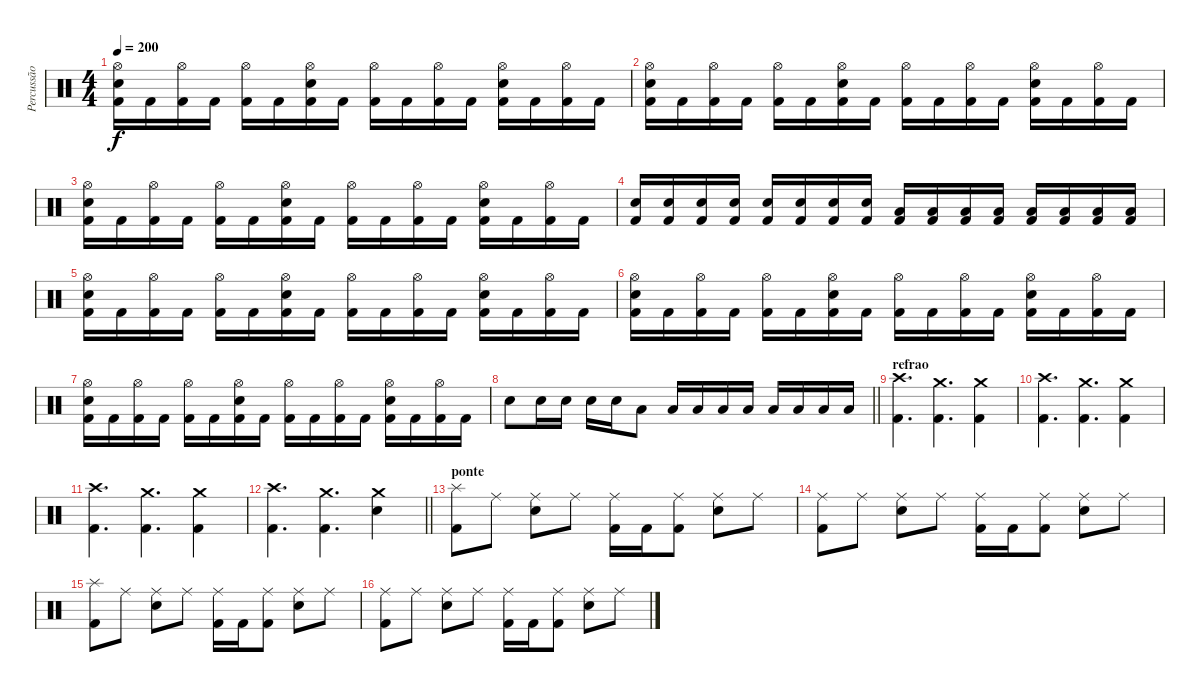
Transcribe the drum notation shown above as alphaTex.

\track ("Percussão" "Percussão") {instrument percussion}
\staff {score}
\articulation defaults
\ts (4 4)
\tempo 200
\clef neutral
\ks c
("Kick (hit) 2" "Hi-Hat (open)" "Snare (hit) 2").16{dy f} "Kick (hit) 2".16 ("Kick (hit) 2" "Hi-Hat (open)").16 "Kick (hit) 2".16 ("Kick (hit) 2" "Hi-Hat (open)").16 "Kick (hit) 2".16 ("Kick (hit) 2" "Hi-Hat (open)" "Snare (hit) 2").16 "Kick (hit) 2".16 ("Kick (hit) 2" "Hi-Hat (open)").16 "Kick (hit) 2".16 ("Kick (hit) 2" "Hi-Hat (open)").16 "Kick (hit) 2".16 ("Kick (hit) 2" "Hi-Hat (open)" "Snare (hit) 2").16 "Kick (hit) 2".16 ("Kick (hit) 2" "Hi-Hat (open)").16 "Kick (hit) 2".16 |
("Kick (hit) 2" "Hi-Hat (open)" "Snare (hit) 2").16 "Kick (hit) 2".16 ("Kick (hit) 2" "Hi-Hat (open)").16 "Kick (hit) 2".16 ("Kick (hit) 2" "Hi-Hat (open)").16 "Kick (hit) 2".16 ("Kick (hit) 2" "Hi-Hat (open)" "Snare (hit) 2").16 "Kick (hit) 2".16 ("Kick (hit) 2" "Hi-Hat (open)").16 "Kick (hit) 2".16 ("Kick (hit) 2" "Hi-Hat (open)").16 "Kick (hit) 2".16 ("Kick (hit) 2" "Hi-Hat (open)" "Snare (hit) 2").16 "Kick (hit) 2".16 ("Kick (hit) 2" "Hi-Hat (open)").16 "Kick (hit) 2".16 |
("Kick (hit) 2" "Hi-Hat (open)" "Snare (hit) 2").16 "Kick (hit) 2".16 ("Kick (hit) 2" "Hi-Hat (open)").16 "Kick (hit) 2".16 ("Kick (hit) 2" "Hi-Hat (open)").16 "Kick (hit) 2".16 ("Kick (hit) 2" "Hi-Hat (open)" "Snare (hit) 2").16 "Kick (hit) 2".16 ("Kick (hit) 2" "Hi-Hat (open)").16 "Kick (hit) 2".16 ("Kick (hit) 2" "Hi-Hat (open)").16 "Kick (hit) 2".16 ("Kick (hit) 2" "Hi-Hat (open)" "Snare (hit) 2").16 "Kick (hit) 2".16 ("Kick (hit) 2" "Hi-Hat (open)").16 "Kick (hit) 2".16 |
("Kick (hit) 2" "Snare (hit) 2").16 ("Kick (hit) 2" "Snare (hit) 2").16 ("Kick (hit) 2" "Snare (hit) 2").16 ("Kick (hit) 2" "Snare (hit) 2").16 ("Kick (hit) 2" "Snare (hit) 2").16 ("Kick (hit) 2" "Snare (hit) 2").16 ("Kick (hit) 2" "Snare (hit) 2").16 ("Kick (hit) 2" "Snare (hit) 2").16 ("Kick (hit) 2" "Low Tom (hit)").16 ("Kick (hit) 2" "Low Tom (hit)").16 ("Kick (hit) 2" "Low Tom (hit)").16 ("Kick (hit) 2" "Low Tom (hit)").16 ("Kick (hit) 2" "Low Tom (hit)").16 ("Kick (hit) 2" "Low Tom (hit)").16 ("Kick (hit) 2" "Low Tom (hit)").16 ("Kick (hit) 2" "Low Tom (hit)").16 |
("Kick (hit) 2" "Hi-Hat (open)" "Snare (hit) 2").16 "Kick (hit) 2".16 ("Kick (hit) 2" "Hi-Hat (open)").16 "Kick (hit) 2".16 ("Kick (hit) 2" "Hi-Hat (open)").16 "Kick (hit) 2".16 ("Kick (hit) 2" "Hi-Hat (open)" "Snare (hit) 2").16 "Kick (hit) 2".16 ("Kick (hit) 2" "Hi-Hat (open)").16 "Kick (hit) 2".16 ("Kick (hit) 2" "Hi-Hat (open)").16 "Kick (hit) 2".16 ("Kick (hit) 2" "Hi-Hat (open)" "Snare (hit) 2").16 "Kick (hit) 2".16 ("Kick (hit) 2" "Hi-Hat (open)").16 "Kick (hit) 2".16 |
("Kick (hit) 2" "Hi-Hat (open)" "Snare (hit) 2").16 "Kick (hit) 2".16 ("Kick (hit) 2" "Hi-Hat (open)").16 "Kick (hit) 2".16 ("Kick (hit) 2" "Hi-Hat (open)").16 "Kick (hit) 2".16 ("Kick (hit) 2" "Hi-Hat (open)" "Snare (hit) 2").16 "Kick (hit) 2".16 ("Kick (hit) 2" "Hi-Hat (open)").16 "Kick (hit) 2".16 ("Kick (hit) 2" "Hi-Hat (open)").16 "Kick (hit) 2".16 ("Kick (hit) 2" "Hi-Hat (open)" "Snare (hit) 2").16 "Kick (hit) 2".16 ("Kick (hit) 2" "Hi-Hat (open)").16 "Kick (hit) 2".16 |
("Kick (hit) 2" "Hi-Hat (open)" "Snare (hit) 2").16 "Kick (hit) 2".16 ("Kick (hit) 2" "Hi-Hat (open)").16 "Kick (hit) 2".16 ("Kick (hit) 2" "Hi-Hat (open)").16 "Kick (hit) 2".16 ("Kick (hit) 2" "Hi-Hat (open)" "Snare (hit) 2").16 "Kick (hit) 2".16 ("Kick (hit) 2" "Hi-Hat (open)").16 "Kick (hit) 2".16 ("Kick (hit) 2" "Hi-Hat (open)").16 "Kick (hit) 2".16 ("Kick (hit) 2" "Hi-Hat (open)" "Snare (hit) 2").16 "Kick (hit) 2".16 ("Kick (hit) 2" "Hi-Hat (open)").16 "Kick (hit) 2".16 |
\barLineRight lightlight "Snare (hit) 2".8 "Snare (hit) 2".16 "Snare (hit) 2".16 "Snare (hit) 2".16 "Snare (hit) 2".16 "Low Tom (hit)".8 "Low Tom (hit)".16 "Low Tom (hit)".16 "Low Tom (hit)".16 "Low Tom (hit)".16 "Low Floor Tom (hit)".16 "Low Floor Tom (hit)".16 "Low Floor Tom (hit)".16 "Low Floor Tom (hit)".16
|
\section ("" "refrao")
("Crash high (hit)" "Kick (hit) 2").4{d} ("Crash medium (hit)" "Kick (hit) 2").4{d} ("Crash medium (hit)" "Kick (hit) 2").4 |
("Crash high (hit)" "Kick (hit) 2").4{d} ("Crash medium (hit)" "Kick (hit) 2").4{d} ("Crash medium (hit)" "Kick (hit) 2").4 |
("Crash high (hit)" "Kick (hit) 2").4{d} ("Crash medium (hit)" "Kick (hit) 2").4{d} ("Crash medium (hit)" "Kick (hit) 2").4 |
\barLineRight lightlight
("Crash high (hit)" "Kick (hit) 2").4{d} ("Crash medium (hit)" "Kick (hit) 2").4{d} ("Crash medium (hit)" "Snare (hit) 2").4 |
\section ("" "ponte")
("Kick (hit) 2" "Splash (hit)").8 "Ride (middle)".8 ("Ride (middle)" "Snare (hit) 2").8 "Ride (middle)".8 ("Kick (hit) 2" "Ride (middle)").16 "Kick (hit) 2".16 ("Kick (hit) 2" "Ride (middle)").8 ("Ride (middle)" "Snare (hit) 2").8 "Ride (middle)".8 |
("Kick (hit) 2" "Ride (middle)").8 "Ride (middle)".8 ("Ride (middle)" "Snare (hit) 2").8 "Ride (middle)".8 ("Kick (hit) 2" "Ride (middle)").16 "Kick (hit) 2".16 ("Kick (hit) 2" "Ride (middle)").8 ("Ride (middle)" "Snare (hit) 2").8 "Ride (middle)".8 |
("Kick (hit) 2" "Splash (hit)").8 "Ride (middle)".8 ("Ride (middle)" "Snare (hit) 2").8 "Ride (middle)".8 ("Kick (hit) 2" "Ride (middle)").16 "Kick (hit) 2".16 ("Kick (hit) 2" "Ride (middle)").8 ("Ride (middle)" "Snare (hit) 2").8 "Ride (middle)".8 |
("Kick (hit) 2" "Ride (middle)").8 "Ride (middle)".8 ("Ride (middle)" "Snare (hit) 2").8 "Ride (middle)".8 ("Kick (hit) 2" "Ride (middle)").16 "Kick (hit) 2".16 ("Kick (hit) 2" "Ride (middle)").8 ("Ride (middle)" "Snare (hit) 2").8 "Ride (middle)".8
